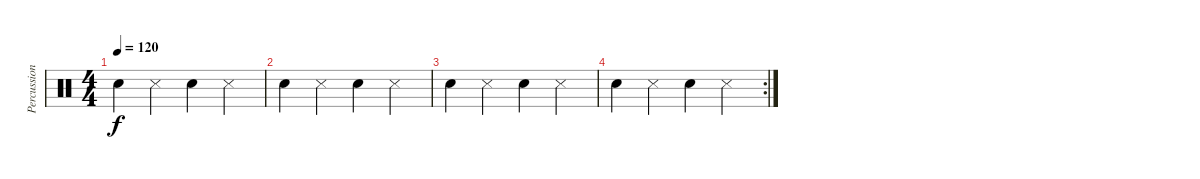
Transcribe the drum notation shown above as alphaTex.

\track ("Percussion" "Percussion") {instrument percussion}
\staff {score}
\articulation defaults
\ts (4 4)
\tempo 120
\clef neutral
\ks c "Snare (hit) 2".4{dy f} "Snare (side stick) 3".4 "Snare (hit) 2".4 "Snare (side stick) 3".4
|
"Snare (hit) 2".4 "Snare (side stick) 3".4 "Snare (hit) 2".4 "Snare (side stick) 3".4 |
"Snare (hit) 2".4 "Snare (side stick) 3".4 "Snare (hit) 2".4 "Snare (side stick) 3".4 |
\rc 2 "Snare (hit) 2".4 "Snare (side stick) 3".4 "Snare (hit) 2".4 "Snare (side stick) 3".4
